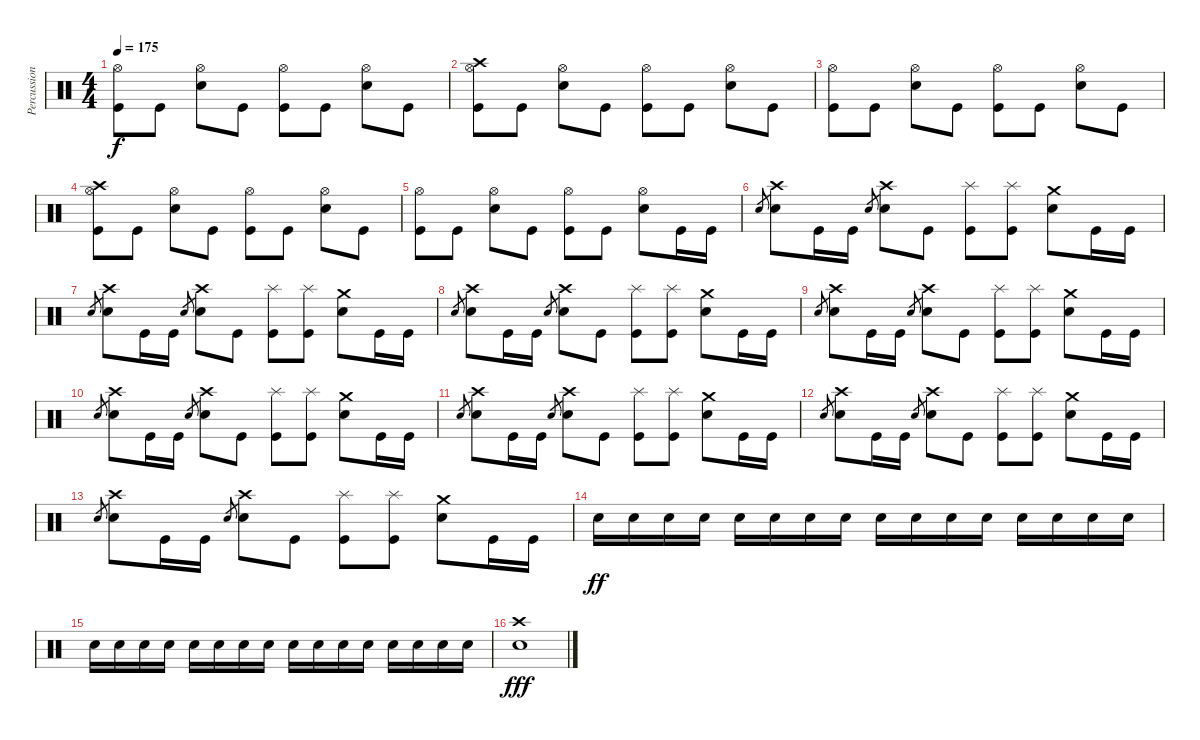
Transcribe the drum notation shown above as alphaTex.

\track ("Percussions" "Percussion") {instrument percussion}
\staff {score}
\articulation defaults
\ts (4 4)
\tempo 175
\clef neutral
\ks c
("Hi-Hat (open)" "Kick (hit)").8{dy f} "Kick (hit)".8 ("Hi-Hat (open)" "Snare (hit) 2").8 "Kick (hit)".8 ("Hi-Hat (open)" "Kick (hit)").8 "Kick (hit)".8 ("Hi-Hat (open)" "Snare (hit) 2").8 "Kick (hit)".8 |
("Hi-Hat (open)" "Crash high (hit)" "Kick (hit)").8 "Kick (hit)".8 ("Hi-Hat (open)" "Snare (hit) 2").8 "Kick (hit)".8 ("Hi-Hat (open)" "Kick (hit)").8 "Kick (hit)".8 ("Hi-Hat (open)" "Snare (hit) 2").8 "Kick (hit)".8 |
("Hi-Hat (open)" "Kick (hit)").8 "Kick (hit)".8 ("Hi-Hat (open)" "Snare (hit) 2").8 "Kick (hit)".8 ("Hi-Hat (open)" "Kick (hit)").8 "Kick (hit)".8 ("Hi-Hat (open)" "Snare (hit) 2").8 "Kick (hit)".8 |
("Hi-Hat (open)" "Crash high (hit)" "Kick (hit)").8 "Kick (hit)".8 ("Hi-Hat (open)" "Snare (hit) 2").8 "Kick (hit)".8 ("Hi-Hat (open)" "Kick (hit)").8 "Kick (hit)".8 ("Hi-Hat (open)" "Snare (hit) 2").8 "Kick (hit)".8 |
("Hi-Hat (open)" "Kick (hit)").8 "Kick (hit)".8 ("Hi-Hat (open)" "Snare (hit) 2").8 "Kick (hit)".8 ("Hi-Hat (open)" "Kick (hit)").8 "Kick (hit)".8 ("Hi-Hat (open)" "Snare (hit) 2").8 "Kick (hit)".16 "Kick (hit)".16 |
"Snare (hit) 2".8{gr} ("Crash high (hit)" "Snare (hit) 2").8 "Kick (hit)".16 "Kick (hit)".16 "Snare (hit) 2".8{gr} ("Crash high (hit)" "Snare (hit) 2").8 "Kick (hit)".8 ("Splash (hit)" "Kick (hit)").8 ("Splash (hit)" "Kick (hit)").8 ("Crash medium (hit)" "Snare (hit) 2").8 "Kick (hit)".16 "Kick (hit)".16 |
"Snare (hit) 2".8{gr} ("Crash high (hit)" "Snare (hit) 2").8 "Kick (hit)".16 "Kick (hit)".16 "Snare (hit) 2".8{gr} ("Crash high (hit)" "Snare (hit) 2").8 "Kick (hit)".8 ("Splash (hit)" "Kick (hit)").8 ("Splash (hit)" "Kick (hit)").8 ("Crash medium (hit)" "Snare (hit) 2").8 "Kick (hit)".16 "Kick (hit)".16 |
"Snare (hit) 2".8{gr} ("Crash high (hit)" "Snare (hit) 2").8 "Kick (hit)".16 "Kick (hit)".16 "Snare (hit) 2".8{gr} ("Crash high (hit)" "Snare (hit) 2").8 "Kick (hit)".8 ("Splash (hit)" "Kick (hit)").8 ("Splash (hit)" "Kick (hit)").8 ("Crash medium (hit)" "Snare (hit) 2").8 "Kick (hit)".16 "Kick (hit)".16 |
"Snare (hit) 2".8{gr} ("Crash high (hit)" "Snare (hit) 2").8 "Kick (hit)".16 "Kick (hit)".16 "Snare (hit) 2".8{gr} ("Crash high (hit)" "Snare (hit) 2").8 "Kick (hit)".8 ("Splash (hit)" "Kick (hit)").8 ("Splash (hit)" "Kick (hit)").8 ("Crash medium (hit)" "Snare (hit) 2").8 "Kick (hit)".16 "Kick (hit)".16 |
"Snare (hit) 2".8{gr} ("Crash high (hit)" "Snare (hit) 2").8 "Kick (hit)".16 "Kick (hit)".16 "Snare (hit) 2".8{gr} ("Crash high (hit)" "Snare (hit) 2").8 "Kick (hit)".8 ("Splash (hit)" "Kick (hit)").8 ("Splash (hit)" "Kick (hit)").8 ("Crash medium (hit)" "Snare (hit) 2").8 "Kick (hit)".16 "Kick (hit)".16 |
"Snare (hit) 2".8{gr} ("Crash high (hit)" "Snare (hit) 2").8 "Kick (hit)".16 "Kick (hit)".16 "Snare (hit) 2".8{gr} ("Crash high (hit)" "Snare (hit) 2").8 "Kick (hit)".8 ("Splash (hit)" "Kick (hit)").8 ("Splash (hit)" "Kick (hit)").8 ("Crash medium (hit)" "Snare (hit) 2").8 "Kick (hit)".16 "Kick (hit)".16 |
"Snare (hit) 2".8{gr} ("Crash high (hit)" "Snare (hit) 2").8 "Kick (hit)".16 "Kick (hit)".16 "Snare (hit) 2".8{gr} ("Crash high (hit)" "Snare (hit) 2").8 "Kick (hit)".8 ("Splash (hit)" "Kick (hit)").8 ("Splash (hit)" "Kick (hit)").8 ("Crash medium (hit)" "Snare (hit) 2").8 "Kick (hit)".16 "Kick (hit)".16 |
"Snare (hit) 2".8{gr} ("Crash high (hit)" "Snare (hit) 2").8 "Kick (hit)".16 "Kick (hit)".16 "Snare (hit) 2".8{gr} ("Crash high (hit)" "Snare (hit) 2").8 "Kick (hit)".8 ("Splash (hit)" "Kick (hit)").8 ("Splash (hit)" "Kick (hit)").8 ("Crash medium (hit)" "Snare (hit) 2").8 "Kick (hit)".16 "Kick (hit)".16 |
"Snare (hit) 2".16{dy ff} "Snare (hit) 2".16 "Snare (hit) 2".16 "Snare (hit) 2".16 "Snare (hit) 2".16 "Snare (hit) 2".16 "Snare (hit) 2".16 "Snare (hit) 2".16 "Snare (hit) 2".16 "Snare (hit) 2".16 "Snare (hit) 2".16 "Snare (hit) 2".16 "Snare (hit) 2".16 "Snare (hit) 2".16 "Snare (hit) 2".16 "Snare (hit) 2".16 |
"Snare (hit) 2".16 "Snare (hit) 2".16 "Snare (hit) 2".16 "Snare (hit) 2".16 "Snare (hit) 2".16 "Snare (hit) 2".16 "Snare (hit) 2".16 "Snare (hit) 2".16 "Snare (hit) 2".16 "Snare (hit) 2".16 "Snare (hit) 2".16 "Snare (hit) 2".16 "Snare (hit) 2".16 "Snare (hit) 2".16 "Snare (hit) 2".16 "Snare (hit) 2".16 |
("Crash high (hit)" "Snare (hit) 2").1{dy fff}
